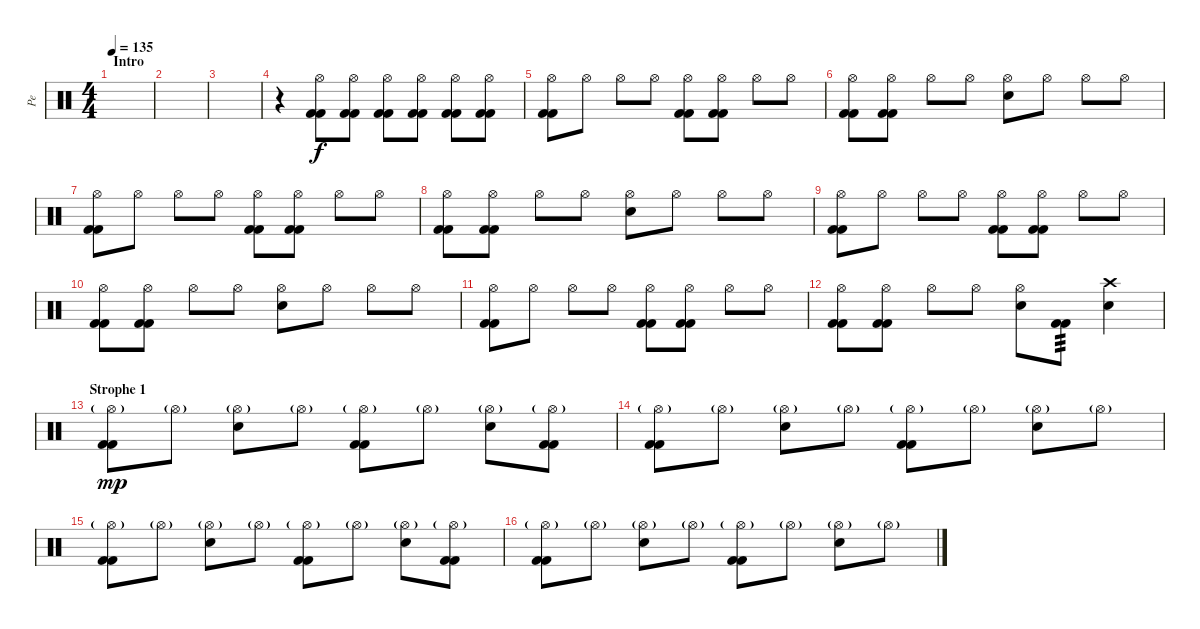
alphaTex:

\track ("Pe" "Pe") {instrument percussion}
\staff {score}
\articulation defaults
\ts (4 4)
\section ("" "Intro")
\tempo 135
\clef neutral
\ks c
|
|
|
r.4 ("Hi-Hat (open)" "Kick (hit) 2" "Kick (hit) 2").8{volume 2} ("Kick (hit) 2" "Kick (hit) 2" "Hi-Hat (open)").8{volume 5} ("Hi-Hat (open)" "Kick (hit) 2" "Kick (hit) 2").8{volume 8} ("Kick (hit) 2" "Kick (hit) 2" "Hi-Hat (open)").8{volume 10} ("Hi-Hat (open)" "Kick (hit) 2" "Kick (hit) 2").8{volume 13} ("Kick (hit) 2" "Kick (hit) 2" "Hi-Hat (open)").8{volume 16} |
("Hi-Hat (open)" "Kick (hit) 2" "Kick (hit) 2").8 "Hi-Hat (open)".8 "Hi-Hat (open)".8 "Hi-Hat (open)".8 ("Kick (hit) 2" "Kick (hit) 2" "Hi-Hat (open)").8 ("Hi-Hat (open)" "Kick (hit) 2" "Kick (hit) 2").8 "Hi-Hat (open)".8 "Hi-Hat (open)".8 |
("Hi-Hat (open)" "Kick (hit) 2" "Kick (hit) 2").8 ("Kick (hit) 2" "Kick (hit) 2" "Hi-Hat (open)").8 "Hi-Hat (open)".8 "Hi-Hat (open)".8 ("Electric Snare (hit)" "Hi-Hat (open)").8 "Hi-Hat (open)".8 "Hi-Hat (open)".8 "Hi-Hat (open)".8 |
("Hi-Hat (open)" "Kick (hit) 2" "Kick (hit) 2").8 "Hi-Hat (open)".8 "Hi-Hat (open)".8 "Hi-Hat (open)".8 ("Kick (hit) 2" "Kick (hit) 2" "Hi-Hat (open)").8 ("Hi-Hat (open)" "Kick (hit) 2" "Kick (hit) 2").8 "Hi-Hat (open)".8 "Hi-Hat (open)".8 |
("Hi-Hat (open)" "Kick (hit) 2" "Kick (hit) 2").8 ("Kick (hit) 2" "Kick (hit) 2" "Hi-Hat (open)").8 "Hi-Hat (open)".8 "Hi-Hat (open)".8 ("Electric Snare (hit)" "Hi-Hat (open)").8 "Hi-Hat (open)".8 "Hi-Hat (open)".8 "Hi-Hat (open)".8 |
("Hi-Hat (open)" "Kick (hit) 2" "Kick (hit) 2").8 "Hi-Hat (open)".8 "Hi-Hat (open)".8 "Hi-Hat (open)".8 ("Kick (hit) 2" "Kick (hit) 2" "Hi-Hat (open)").8 ("Hi-Hat (open)" "Kick (hit) 2" "Kick (hit) 2").8 "Hi-Hat (open)".8 "Hi-Hat (open)".8 |
("Hi-Hat (open)" "Kick (hit) 2" "Kick (hit) 2").8 ("Kick (hit) 2" "Kick (hit) 2" "Hi-Hat (open)").8 "Hi-Hat (open)".8 "Hi-Hat (open)".8 ("Electric Snare (hit)" "Hi-Hat (open)").8 "Hi-Hat (open)".8 "Hi-Hat (open)".8 "Hi-Hat (open)".8 |
("Hi-Hat (open)" "Kick (hit) 2" "Kick (hit) 2").8 "Hi-Hat (open)".8 "Hi-Hat (open)".8 "Hi-Hat (open)".8 ("Kick (hit) 2" "Kick (hit) 2" "Hi-Hat (open)").8 ("Hi-Hat (open)" "Kick (hit) 2" "Kick (hit) 2").8 "Hi-Hat (open)".8 "Hi-Hat (open)".8 |
("Hi-Hat (open)" "Kick (hit) 2" "Kick (hit) 2").8 ("Kick (hit) 2" "Kick (hit) 2" "Hi-Hat (open)").8 "Hi-Hat (open)".8 "Hi-Hat (open)".8 ("Electric Snare (hit)" "Hi-Hat (open)").8 ("Kick (hit) 2" "Kick (hit) 2").8{tp 3} ("Crash high (hit)" "Electric Snare (hit)").4 |
\section ("" "Strophe 1")
("Hi-Hat (open)"{g} "Kick (hit) 2" "Kick (hit) 2").8{dy mp} "Hi-Hat (open)"{g}.8 ("Electric Snare (hit)" "Hi-Hat (open)"{g}).8 "Hi-Hat (open)"{g}.8 ("Hi-Hat (open)"{g} "Kick (hit) 2" "Kick (hit) 2").8 "Hi-Hat (open)"{g}.8 ("Electric Snare (hit)" "Hi-Hat (open)"{g}).8 ("Kick (hit) 2" "Kick (hit) 2" "Hi-Hat (open)"{g}).8 |
("Kick (hit) 2" "Kick (hit) 2" "Hi-Hat (open)"{g}).8 "Hi-Hat (open)"{g}.8 ("Hi-Hat (open)"{g} "Electric Snare (hit)").8 "Hi-Hat (open)"{g}.8 ("Hi-Hat (open)"{g} "Kick (hit) 2" "Kick (hit) 2").8 "Hi-Hat (open)"{g}.8 ("Electric Snare (hit)" "Hi-Hat (open)"{g}).8 "Hi-Hat (open)"{g}.8 |
("Hi-Hat (open)"{g} "Kick (hit) 2" "Kick (hit) 2").8 "Hi-Hat (open)"{g}.8 ("Electric Snare (hit)" "Hi-Hat (open)"{g}).8 "Hi-Hat (open)"{g}.8 ("Hi-Hat (open)"{g} "Kick (hit) 2" "Kick (hit) 2").8 "Hi-Hat (open)"{g}.8 ("Electric Snare (hit)" "Hi-Hat (open)"{g}).8 ("Kick (hit) 2" "Kick (hit) 2" "Hi-Hat (open)"{g}).8 |
("Hi-Hat (open)"{g} "Kick (hit) 2" "Kick (hit) 2").8 "Hi-Hat (open)"{g}.8 ("Electric Snare (hit)" "Hi-Hat (open)"{g}).8 "Hi-Hat (open)"{g}.8 ("Hi-Hat (open)"{g} "Kick (hit) 2" "Kick (hit) 2").8 "Hi-Hat (open)"{g}.8 ("Electric Snare (hit)" "Hi-Hat (open)"{g}).8 "Hi-Hat (open)"{g}.8
